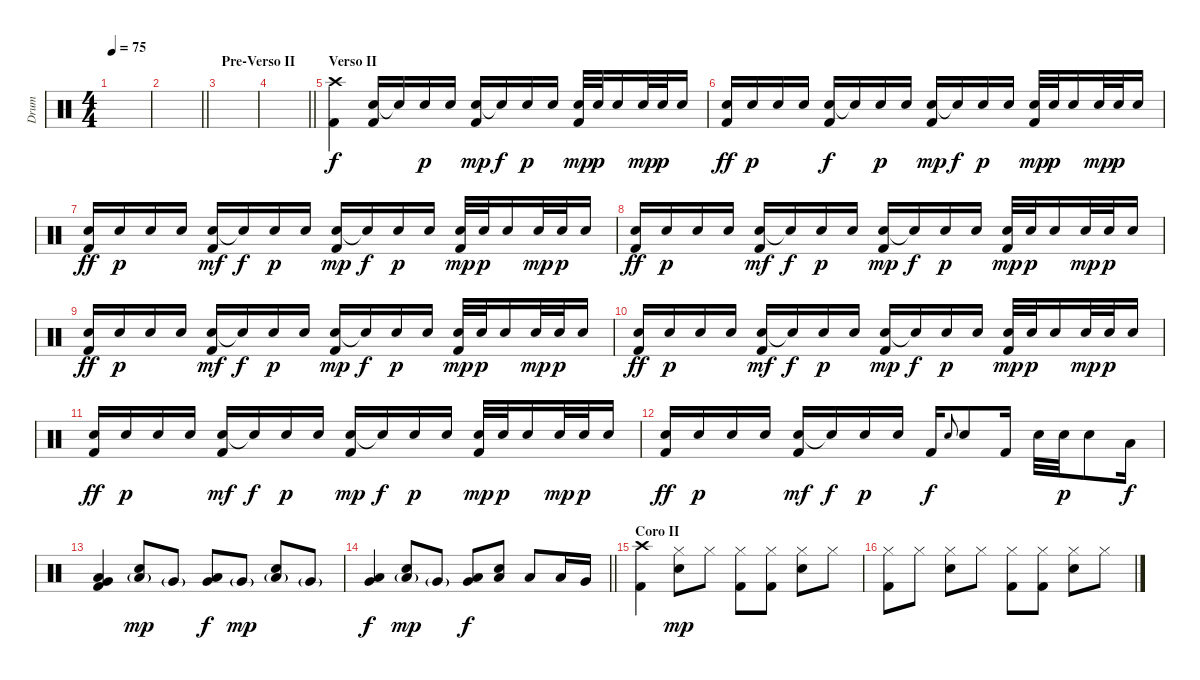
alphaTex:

\track ("Drum" "Drum") {instrument percussion}
\staff {score}
\articulation defaults
\ts (4 4)
\tempo 75
\clef neutral
\ks c
|
\barLineRight lightlight
|
\section ("" "Pre-Verso II")
|
\barLineRight lightlight
|
\section ("" "Verso II")
("Crash high (hit)" "Kick (hit) 2").4 ("Snare (hit) 2" "Kick (hit) 2").16 "Snare (hit)"{t}.16 "Snare (hit) 2".16{dy p} "Snare (hit) 2".16 ("Snare (hit) 2" "Kick (hit) 2").16{dy mp} "Snare (hit)"{t}.16{dy f} "Snare (hit) 2".16{dy p} "Snare (hit) 2".16 ("Snare (hit) 2" "Kick (hit) 2").32{dy mp} "Snare (hit) 2".32{dy p} "Snare (hit) 2".16 "Snare (hit) 2".32{dy mp} "Snare (hit) 2".32{dy p} "Snare (hit) 2".16 |
("Snare (hit) 2" "Kick (hit) 2").16{dy ff} "Snare (hit) 2".16{dy p} "Snare (hit) 2".16 "Snare (hit) 2".16 ("Snare (hit) 2" "Kick (hit) 2").16{dy f} "Snare (hit)"{t}.16 "Snare (hit) 2".16{dy p} "Snare (hit) 2".16 ("Snare (hit) 2" "Kick (hit) 2").16{dy mp} "Snare (hit)"{t}.16{dy f} "Snare (hit) 2".16{dy p} "Snare (hit) 2".16 ("Snare (hit) 2" "Kick (hit) 2").32{dy mp} "Snare (hit) 2".32{dy p} "Snare (hit) 2".16 "Snare (hit) 2".32{dy mp} "Snare (hit) 2".32{dy p} "Snare (hit) 2".16 |
("Snare (hit) 2" "Kick (hit) 2").16{dy ff} "Snare (hit) 2".16{dy p} "Snare (hit) 2".16 "Snare (hit) 2".16 ("Snare (hit) 2" "Kick (hit) 2").16{dy mf} "Snare (hit)"{t}.16{dy f} "Snare (hit) 2".16{dy p} "Snare (hit) 2".16 ("Snare (hit) 2" "Kick (hit) 2").16{dy mp} "Snare (hit)"{t}.16{dy f} "Snare (hit) 2".16{dy p} "Snare (hit) 2".16 ("Snare (hit) 2" "Kick (hit) 2").32{dy mp} "Snare (hit) 2".32{dy p} "Snare (hit) 2".16 "Snare (hit) 2".32{dy mp} "Snare (hit) 2".32{dy p} "Snare (hit) 2".16 |
("Snare (hit) 2" "Kick (hit) 2").16{dy ff} "Snare (hit) 2".16{dy p} "Snare (hit) 2".16 "Snare (hit) 2".16 ("Snare (hit) 2" "Kick (hit) 2").16{dy mf} "Snare (hit)"{t}.16{dy f} "Snare (hit) 2".16{dy p} "Snare (hit) 2".16 ("Snare (hit) 2" "Kick (hit) 2").16{dy mp} "Snare (hit)"{t}.16{dy f} "Snare (hit) 2".16{dy p} "Snare (hit) 2".16 ("Snare (hit) 2" "Kick (hit) 2").32{dy mp} "Snare (hit) 2".32{dy p} "Snare (hit) 2".16 "Snare (hit) 2".32{dy mp} "Snare (hit) 2".32{dy p} "Snare (hit) 2".16 |
("Snare (hit) 2" "Kick (hit) 2").16{dy ff} "Snare (hit) 2".16{dy p} "Snare (hit) 2".16 "Snare (hit) 2".16 ("Snare (hit) 2" "Kick (hit) 2").16{dy mf} "Snare (hit)"{t}.16{dy f} "Snare (hit) 2".16{dy p} "Snare (hit) 2".16 ("Snare (hit) 2" "Kick (hit) 2").16{dy mp} "Snare (hit)"{t}.16{dy f} "Snare (hit) 2".16{dy p} "Snare (hit) 2".16 ("Snare (hit) 2" "Kick (hit) 2").32{dy mp} "Snare (hit) 2".32{dy p} "Snare (hit) 2".16 "Snare (hit) 2".32{dy mp} "Snare (hit) 2".32{dy p} "Snare (hit) 2".16 |
("Snare (hit) 2" "Kick (hit) 2").16{dy ff} "Snare (hit) 2".16{dy p} "Snare (hit) 2".16 "Snare (hit) 2".16 ("Snare (hit) 2" "Kick (hit) 2").16{dy mf} "Snare (hit)"{t}.16{dy f} "Snare (hit) 2".16{dy p} "Snare (hit) 2".16 ("Snare (hit) 2" "Kick (hit) 2").16{dy mp} "Snare (hit)"{t}.16{dy f} "Snare (hit) 2".16{dy p} "Snare (hit) 2".16 ("Snare (hit) 2" "Kick (hit) 2").32{dy mp} "Snare (hit) 2".32{dy p} "Snare (hit) 2".16 "Snare (hit) 2".32{dy mp} "Snare (hit) 2".32{dy p} "Snare (hit) 2".16 |
("Snare (hit) 2" "Kick (hit) 2").16{dy ff} "Snare (hit) 2".16{dy p} "Snare (hit) 2".16 "Snare (hit) 2".16 ("Snare (hit) 2" "Kick (hit) 2").16{dy mf} "Snare (hit)"{t}.16{dy f} "Snare (hit) 2".16{dy p} "Snare (hit) 2".16 ("Snare (hit) 2" "Kick (hit) 2").16{dy mp} "Snare (hit)"{t}.16{dy f} "Snare (hit) 2".16{dy p} "Snare (hit) 2".16 ("Snare (hit) 2" "Kick (hit) 2").32{dy mp} "Snare (hit) 2".32{dy p} "Snare (hit) 2".16 "Snare (hit) 2".32{dy mp} "Snare (hit) 2".32{dy p} "Snare (hit) 2".16 |
("Snare (hit) 2" "Kick (hit) 2").16{dy ff} "Snare (hit) 2".16{dy p} "Snare (hit) 2".16 "Snare (hit) 2".16 ("Snare (hit) 2" "Kick (hit) 2").16{dy mf} "Snare (hit)"{t}.16{dy f} "Snare (hit) 2".16{dy p} "Snare (hit) 2".16 "Kick (hit) 2".16{dy f} "Snare (hit) 2".8{gr onbeat} "Snare (hit) 2".8 "Kick (hit) 2".16 "Snare (hit) 2".32 "Snare (hit) 2".32{dy p} "Snare (hit) 2".8 "Low Tom (hit)".16{dy f} |
("Low Floor Tom (hit)" "Very Low Tom (hit)" "Kick (hit) 2").4{bd 60} ("Snare (hit) 2" "Low Tom (hit)"{g}).8{bd 60 dy mp} "Very Low Tom (hit)"{g}.8 ("Low Floor Tom (hit)" "Very Low Tom (hit)").8{dy f} "Very Low Tom (hit)"{g}.8{dy mp} ("Snare (hit) 2" "Low Tom (hit)"{g}).8 "Very Low Tom (hit)"{g}.8 |
\barLineRight lightlight
("Low Floor Tom (hit)" "Very Low Tom (hit)").4{dy f} ("Snare (hit) 2" "Low Tom (hit)"{g}).8{dy mp} "Very Low Tom (hit)"{g}.8 ("Low Floor Tom (hit)" "Very Low Tom (hit)").8{dy f} ("Snare (hit) 2" "Low Tom (hit)").8 "Low Tom (hit)".8 "Low Tom (hit)".16 "Very Low Tom (hit)".16 |
\section ("" "Coro II")
("Crash high (hit)" "Kick (hit) 2").4 ("Hi-Hat (closed)" "Snare (hit) 2").8{dy mp} "Hi-Hat (closed)".8 ("Hi-Hat (closed)" "Kick (hit) 2").8 ("Hi-Hat (closed)" "Kick (hit) 2").8 ("Hi-Hat (closed)" "Snare (hit) 2").8 "Hi-Hat (closed)".8 |
("Hi-Hat (closed)" "Kick (hit) 2").8 "Hi-Hat (closed)".8 ("Hi-Hat (closed)" "Snare (hit) 2").8 "Hi-Hat (closed)".8 ("Hi-Hat (closed)" "Kick (hit) 2").8 ("Hi-Hat (closed)" "Kick (hit) 2").8 ("Hi-Hat (closed)" "Snare (hit) 2").8 "Hi-Hat (closed)".8
